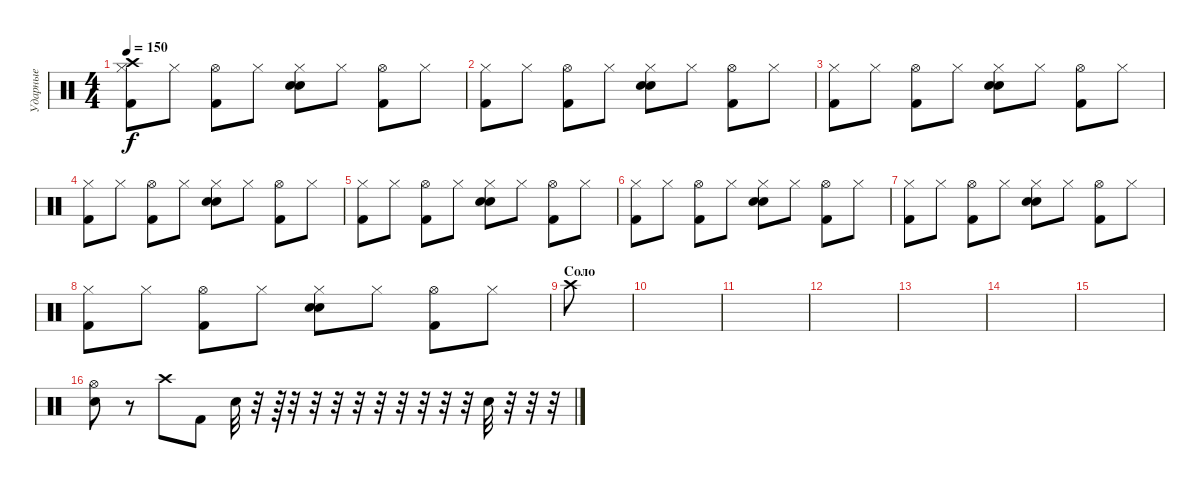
\track ("Ударные" "Ударные") {instrument percussion}
\staff {score}
\articulation defaults
\ts (4 4)
\tempo 150
\clef neutral
\ks c
("Hi-Hat (closed)" "Crash high (hit)" "Kick (hit) 2").8{dy f} "Hi-Hat (closed)".8 ("Hi-Hat (open)" "Kick (hit) 2").8 "Hi-Hat (closed)".8 ("Hi-Hat (closed)" "Snare (hit) 2" "Electric Snare (hit)").8 "Hi-Hat (closed)".8 ("Hi-Hat (open)" "Kick (hit) 2").8 "Hi-Hat (closed)".8 |
("Hi-Hat (closed)" "Kick (hit) 2").8 "Hi-Hat (closed)".8 ("Hi-Hat (open)" "Kick (hit) 2").8 "Hi-Hat (closed)".8 ("Hi-Hat (closed)" "Snare (hit) 2" "Electric Snare (hit)").8 "Hi-Hat (closed)".8 ("Hi-Hat (open)" "Kick (hit) 2").8 "Hi-Hat (closed)".8 |
("Hi-Hat (closed)" "Kick (hit) 2").8 "Hi-Hat (closed)".8 ("Hi-Hat (open)" "Kick (hit) 2").8 "Hi-Hat (closed)".8 ("Hi-Hat (closed)" "Snare (hit) 2" "Electric Snare (hit)").8 "Hi-Hat (closed)".8 ("Hi-Hat (open)" "Kick (hit) 2").8 "Hi-Hat (closed)".8 |
("Hi-Hat (closed)" "Kick (hit) 2").8 "Hi-Hat (closed)".8 ("Hi-Hat (open)" "Kick (hit) 2").8 "Hi-Hat (closed)".8 ("Hi-Hat (closed)" "Snare (hit) 2" "Electric Snare (hit)").8 "Hi-Hat (closed)".8 ("Hi-Hat (open)" "Kick (hit) 2").8 "Hi-Hat (closed)".8 |
("Hi-Hat (closed)" "Kick (hit) 2").8 "Hi-Hat (closed)".8 ("Hi-Hat (open)" "Kick (hit) 2").8 "Hi-Hat (closed)".8 ("Hi-Hat (closed)" "Snare (hit) 2" "Electric Snare (hit)").8 "Hi-Hat (closed)".8 ("Hi-Hat (open)" "Kick (hit) 2").8 "Hi-Hat (closed)".8 |
("Hi-Hat (closed)" "Kick (hit) 2").8 "Hi-Hat (closed)".8 ("Hi-Hat (open)" "Kick (hit) 2").8 "Hi-Hat (closed)".8 ("Hi-Hat (closed)" "Snare (hit) 2" "Electric Snare (hit)").8 "Hi-Hat (closed)".8 ("Hi-Hat (open)" "Kick (hit) 2").8 "Hi-Hat (closed)".8 |
("Hi-Hat (closed)" "Kick (hit) 2").8 "Hi-Hat (closed)".8 ("Hi-Hat (open)" "Kick (hit) 2").8 "Hi-Hat (closed)".8 ("Hi-Hat (closed)" "Snare (hit) 2" "Electric Snare (hit)").8 "Hi-Hat (closed)".8 ("Hi-Hat (open)" "Kick (hit) 2").8 "Hi-Hat (closed)".8 |
("Hi-Hat (closed)" "Kick (hit) 2").8 "Hi-Hat (closed)".8 ("Hi-Hat (open)" "Kick (hit) 2").8 "Hi-Hat (closed)".8 ("Hi-Hat (closed)" "Snare (hit) 2" "Electric Snare (hit)").8 "Hi-Hat (closed)".8 ("Hi-Hat (open)" "Kick (hit) 2").8 "Hi-Hat (closed)".8 |
\section ("" "Соло")
"Crash high (hit)".8 |
|
|
|
|
|
|
("Hi-Hat (open)" "Snare (hit) 2").8 r.8 "Crash high (hit)".8 "Kick (hit) 2".8 "Electric Snare (hit)".32 r.32 r.64 r.32 r.32 r.32 r.32 r.32 r.32 r.32 r.32 r.32 "Electric Snare (hit)".32 r.32 r.32 r.32
